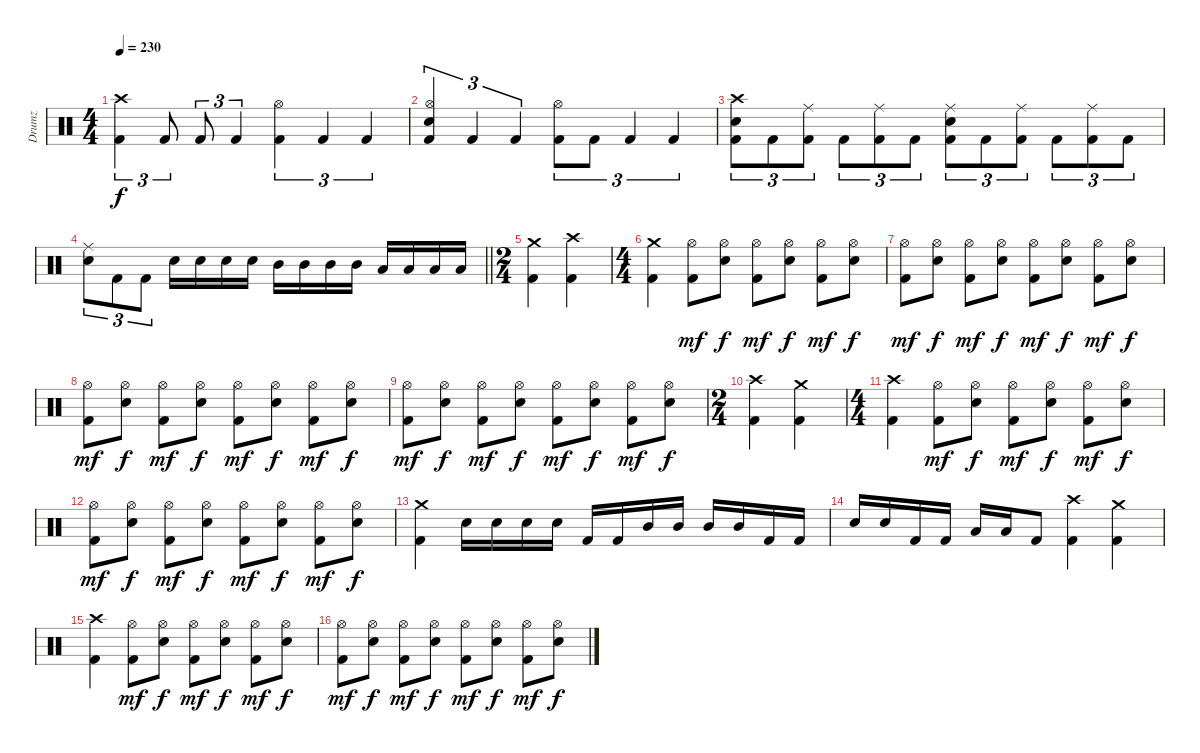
\track ("Drumz" "Drumz") {instrument percussion}
\staff {score}
\articulation defaults
\ts (4 4)
\tempo 230
\clef neutral
\ks c
("Crash high (hit)" "Kick (hit) 2").4{tu (3 2) dy f} "Kick (hit) 2".8{tu (3 2)} "Kick (hit) 2".8{tu (3 2)} "Kick (hit) 2".4{tu (3 2)} ("Hi-Hat (open)" "Kick (hit) 2").4{tu (3 2)} "Kick (hit) 2".4{tu (3 2)} "Kick (hit) 2".4{tu (3 2)} |
("Hi-Hat (open)" "Electric Snare (hit)" "Kick (hit) 2").4{tu (3 2)} "Kick (hit) 2".4{tu (3 2)} "Kick (hit) 2".4{tu (3 2)} ("Hi-Hat (open)" "Kick (hit) 2").8{tu (3 2)} "Kick (hit) 2".8{tu (3 2)} "Kick (hit) 2".4{tu (3 2)} "Kick (hit) 2".4{tu (3 2)} |
("Crash high (hit)" "Electric Snare (hit)" "Kick (hit) 2").8{tu (3 2)} "Kick (hit) 2".8{tu (3 2)} ("Ride (middle)" "Kick (hit) 2").8{tu (3 2)} "Kick (hit) 2".8{tu (3 2)} ("Ride (middle)" "Kick (hit) 2").8{tu (3 2)} "Kick (hit) 2".8{tu (3 2)} ("Ride (middle)" "Electric Snare (hit)" "Kick (hit) 2").8{tu (3 2)} "Kick (hit) 2".8{tu (3 2)} ("Ride (middle)" "Kick (hit) 2").8{tu (3 2)} "Kick (hit) 2".8{tu (3 2)} ("Ride (middle)" "Kick (hit) 2").8{tu (3 2)} "Kick (hit) 2".8{tu (3 2)} |
\barLineRight lightlight
("Ride (middle)" "Electric Snare (hit)").8{tu (3 2)} "Kick (hit) 2".8{tu (3 2)} "Kick (hit) 2".8{tu (3 2)} "Electric Snare (hit)".16 "Electric Snare (hit)".16 "Electric Snare (hit)".16 "Electric Snare (hit)".16 "Mid Tom (hit)".16 "Mid Tom (hit)".16 "Mid Tom (hit)".16 "Mid Tom (hit)".16 "Low Tom (hit)".16 "Low Tom (hit)".16 "Low Tom (hit)".16 "Low Tom (hit)".16 |
\ts (2 4)
\section ("" "")
("Crash medium (hit)" "Kick (hit) 2").4 ("Crash high (hit)" "Kick (hit) 2").4 |
\ts (4 4)
("Crash medium (hit)" "Kick (hit) 2").4 ("Hi-Hat (open)" "Kick (hit) 2").8{dy mf} ("Hi-Hat (open)" "Electric Snare (hit)").8{dy f} ("Hi-Hat (open)" "Kick (hit) 2").8{dy mf} ("Hi-Hat (open)" "Electric Snare (hit)").8{dy f} ("Hi-Hat (open)" "Kick (hit) 2").8{dy mf} ("Hi-Hat (open)" "Electric Snare (hit)").8{dy f} |
("Hi-Hat (open)" "Kick (hit) 2").8{dy mf} ("Hi-Hat (open)" "Electric Snare (hit)").8{dy f} ("Hi-Hat (open)" "Kick (hit) 2").8{dy mf} ("Hi-Hat (open)" "Electric Snare (hit)").8{dy f} ("Hi-Hat (open)" "Kick (hit) 2").8{dy mf} ("Hi-Hat (open)" "Electric Snare (hit)").8{dy f} ("Hi-Hat (open)" "Kick (hit) 2").8{dy mf} ("Hi-Hat (open)" "Electric Snare (hit)").8{dy f} |
("Hi-Hat (open)" "Kick (hit) 2").8{dy mf} ("Hi-Hat (open)" "Electric Snare (hit)").8{dy f} ("Hi-Hat (open)" "Kick (hit) 2").8{dy mf} ("Hi-Hat (open)" "Electric Snare (hit)").8{dy f} ("Hi-Hat (open)" "Kick (hit) 2").8{dy mf} ("Hi-Hat (open)" "Electric Snare (hit)").8{dy f} ("Hi-Hat (open)" "Kick (hit) 2").8{dy mf} ("Hi-Hat (open)" "Electric Snare (hit)").8{dy f} |
("Hi-Hat (open)" "Kick (hit) 2").8{dy mf} ("Hi-Hat (open)" "Electric Snare (hit)").8{dy f} ("Hi-Hat (open)" "Kick (hit) 2").8{dy mf} ("Hi-Hat (open)" "Electric Snare (hit)").8{dy f} ("Hi-Hat (open)" "Kick (hit) 2").8{dy mf} ("Hi-Hat (open)" "Electric Snare (hit)").8{dy f} ("Hi-Hat (open)" "Kick (hit) 2").8{dy mf} ("Hi-Hat (open)" "Electric Snare (hit)").8{dy f} |
\ts (2 4)
("Crash high (hit)" "Kick (hit) 2").4 ("Crash medium (hit)" "Kick (hit) 2").4 |
\ts (4 4)
("Crash high (hit)" "Kick (hit) 2").4 ("Hi-Hat (open)" "Kick (hit) 2").8{dy mf} ("Hi-Hat (open)" "Electric Snare (hit)").8{dy f} ("Hi-Hat (open)" "Kick (hit) 2").8{dy mf} ("Hi-Hat (open)" "Electric Snare (hit)").8{dy f} ("Hi-Hat (open)" "Kick (hit) 2").8{dy mf} ("Hi-Hat (open)" "Electric Snare (hit)").8{dy f} |
("Hi-Hat (open)" "Kick (hit) 2").8{dy mf} ("Hi-Hat (open)" "Electric Snare (hit)").8{dy f} ("Hi-Hat (open)" "Kick (hit) 2").8{dy mf} ("Hi-Hat (open)" "Electric Snare (hit)").8{dy f} ("Hi-Hat (open)" "Kick (hit) 2").8{dy mf} ("Hi-Hat (open)" "Electric Snare (hit)").8{dy f} ("Hi-Hat (open)" "Kick (hit) 2").8{dy mf} ("Hi-Hat (open)" "Electric Snare (hit)").8{dy f} |
("Crash medium (hit)" "Kick (hit) 2").4 "Electric Snare (hit)".16 "Electric Snare (hit)".16 "Electric Snare (hit)".16 "Electric Snare (hit)".16 "Kick (hit) 2".16 "Kick (hit) 2".16 "Mid Tom (hit)".16 "Mid Tom (hit)".16 "Mid Tom (hit)".16 "Mid Tom (hit)".16 "Kick (hit) 2".16 "Kick (hit) 2".16 |
"Electric Snare (hit)".16 "Electric Snare (hit)".16 "Kick (hit) 2".16 "Kick (hit) 2".16 "Low Tom (hit)".16 "Low Tom (hit)".16 "Kick (hit) 2".8 ("Crash high (hit)" "Kick (hit) 2").4 ("Crash medium (hit)" "Kick (hit) 2").4 |
("Crash high (hit)" "Kick (hit) 2").4 ("Hi-Hat (open)" "Kick (hit) 2").8{dy mf} ("Hi-Hat (open)" "Electric Snare (hit)").8{dy f} ("Hi-Hat (open)" "Kick (hit) 2").8{dy mf} ("Hi-Hat (open)" "Electric Snare (hit)").8{dy f} ("Hi-Hat (open)" "Kick (hit) 2").8{dy mf} ("Hi-Hat (open)" "Electric Snare (hit)").8{dy f} |
("Hi-Hat (open)" "Kick (hit) 2").8{dy mf} ("Hi-Hat (open)" "Electric Snare (hit)").8{dy f} ("Hi-Hat (open)" "Kick (hit) 2").8{dy mf} ("Hi-Hat (open)" "Electric Snare (hit)").8{dy f} ("Hi-Hat (open)" "Kick (hit) 2").8{dy mf} ("Hi-Hat (open)" "Electric Snare (hit)").8{dy f} ("Hi-Hat (open)" "Kick (hit) 2").8{dy mf} ("Hi-Hat (open)" "Electric Snare (hit)").8{dy f}
